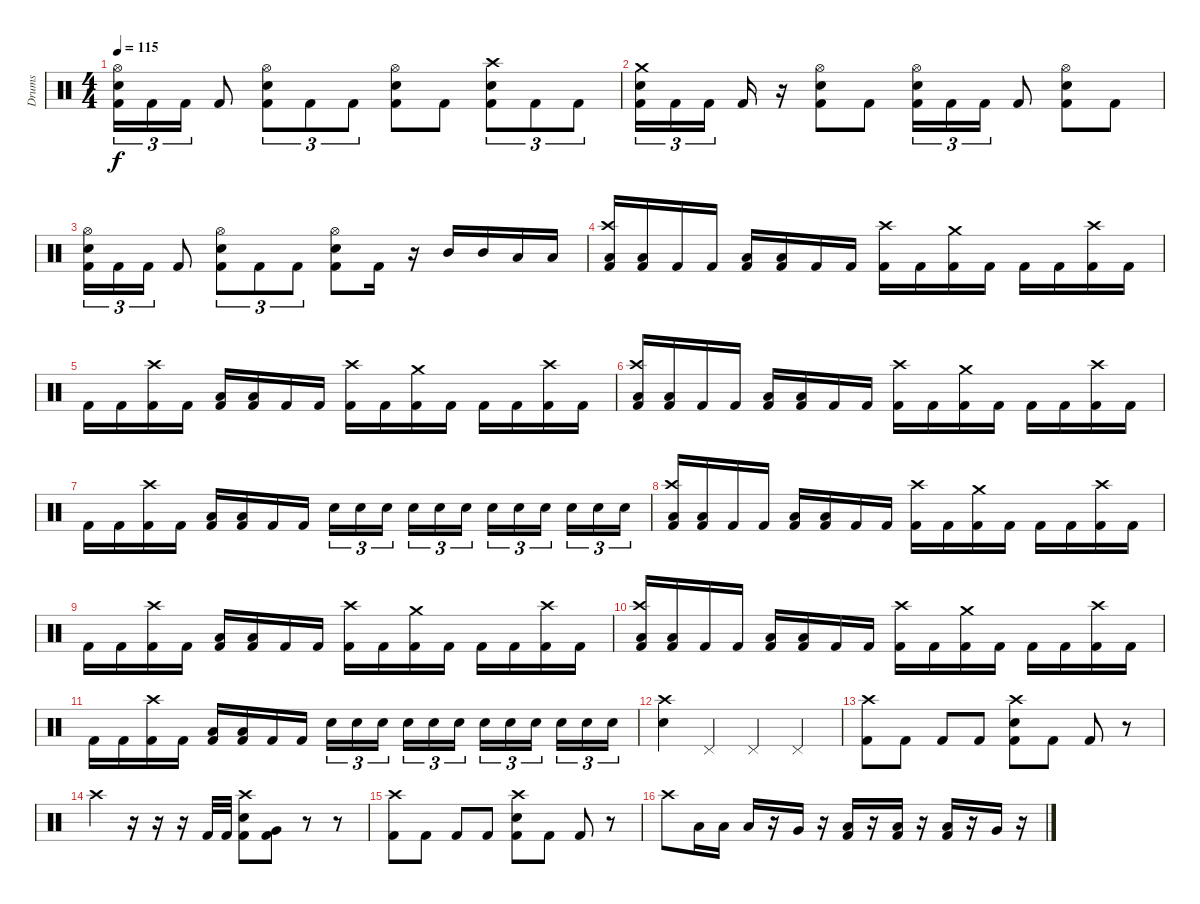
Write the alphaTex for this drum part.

\track ("Drums" "Drums") {instrument percussion}
\staff {score}
\articulation defaults
\ts (4 4)
\tempo 115
\clef neutral
\ks c
("Hi-Hat (open)" "Snare (hit) 2" "Kick (hit) 2").16{tu (3 2) dy f} "Kick (hit) 2".16{tu (3 2)} "Kick (hit) 2".16{tu (3 2)} "Kick (hit) 2".8 ("Hi-Hat (open)" "Snare (hit) 2" "Kick (hit) 2").8{tu (3 2)} "Kick (hit) 2".8{tu (3 2)} "Kick (hit) 2".8{tu (3 2)} ("Hi-Hat (open)" "Snare (hit) 2" "Kick (hit) 2").8 "Kick (hit) 2".8 ("Crash high (hit)" "Snare (hit) 2" "Kick (hit) 2").8{tu (3 2)} "Kick (hit) 2".8{tu (3 2)} "Kick (hit) 2".8{tu (3 2)} |
("Crash medium (hit)" "Snare (hit) 2" "Kick (hit) 2").16{tu (3 2)} "Kick (hit) 2".16{tu (3 2)} "Kick (hit) 2".16{tu (3 2) beam splitsecondary} "Kick (hit) 2".16 r.16 ("Hi-Hat (open)" "Snare (hit) 2" "Kick (hit) 2").8 "Kick (hit) 2".8 ("Hi-Hat (open)" "Snare (hit) 2" "Kick (hit) 2").16{tu (3 2)} "Kick (hit) 2".16{tu (3 2)} "Kick (hit) 2".16{tu (3 2)} "Kick (hit) 2".8 ("Hi-Hat (open)" "Snare (hit) 2" "Kick (hit) 2").8 "Kick (hit) 2".8 |
("Hi-Hat (open)" "Snare (hit) 2" "Kick (hit) 2").16{tu (3 2)} "Kick (hit) 2".16{tu (3 2)} "Kick (hit) 2".16{tu (3 2)} "Kick (hit) 2".8 ("Hi-Hat (open)" "Snare (hit) 2" "Kick (hit) 2").8{tu (3 2)} "Kick (hit) 2".8{tu (3 2)} "Kick (hit) 2".8{tu (3 2)} ("Hi-Hat (open)" "Snare (hit) 2" "Kick (hit) 2").8 "Kick (hit) 2".16 r.16 "Mid Tom (hit)".16 "Mid Tom (hit)".16 "Low Tom (hit)".16 "Low Tom (hit)".16 |
("Crash high (hit)" "Low Tom (hit)" "Kick (hit) 2").16 ("Low Tom (hit)" "Kick (hit) 2").16 "Kick (hit) 2".16 "Kick (hit) 2".16 ("Low Tom (hit)" "Kick (hit) 2").16 ("Low Tom (hit)" "Kick (hit) 2").16 "Kick (hit) 2".16 "Kick (hit) 2".16 ("Crash high (hit)" "Kick (hit) 2").16 "Kick (hit) 2".16 ("Crash medium (hit)" "Kick (hit) 2").16 "Kick (hit) 2".16 "Kick (hit) 2".16 "Kick (hit) 2".16 ("Crash high (hit)" "Kick (hit) 2").16 "Kick (hit) 2".16 |
"Kick (hit) 2".16 "Kick (hit) 2".16 ("Crash high (hit)" "Kick (hit) 2").16 "Kick (hit) 2".16 ("Low Tom (hit)" "Kick (hit) 2").16 ("Low Tom (hit)" "Kick (hit) 2").16 "Kick (hit) 2".16 "Kick (hit) 2".16 ("Crash high (hit)" "Kick (hit) 2").16 "Kick (hit) 2".16 ("Crash medium (hit)" "Kick (hit) 2").16 "Kick (hit) 2".16 "Kick (hit) 2".16 "Kick (hit) 2".16 ("Crash high (hit)" "Kick (hit) 2").16 "Kick (hit) 2".16 |
("Crash high (hit)" "Low Tom (hit)" "Kick (hit) 2").16 ("Low Tom (hit)" "Kick (hit) 2").16 "Kick (hit) 2".16 "Kick (hit) 2".16 ("Low Tom (hit)" "Kick (hit) 2").16 ("Low Tom (hit)" "Kick (hit) 2").16 "Kick (hit) 2".16 "Kick (hit) 2".16 ("Crash high (hit)" "Kick (hit) 2").16 "Kick (hit) 2".16 ("Crash medium (hit)" "Kick (hit) 2").16 "Kick (hit) 2".16 "Kick (hit) 2".16 "Kick (hit) 2".16 ("Crash high (hit)" "Kick (hit) 2").16 "Kick (hit) 2".16 |
"Kick (hit) 2".16 "Kick (hit) 2".16 ("Crash high (hit)" "Kick (hit) 2").16 "Kick (hit) 2".16 ("Low Tom (hit)" "Kick (hit) 2").16 ("Low Tom (hit)" "Kick (hit) 2").16 "Kick (hit) 2".16 "Kick (hit) 2".16 "Snare (hit) 2".16{tu (3 2)} "Snare (hit) 2".16{tu (3 2)} "Snare (hit) 2".16{tu (3 2) beam splitsecondary} "Snare (hit) 2".16{tu (3 2)} "Snare (hit) 2".16{tu (3 2)} "Snare (hit) 2".16{tu (3 2)} "Snare (hit) 2".16{tu (3 2)} "Snare (hit) 2".16{tu (3 2)} "Snare (hit) 2".16{tu (3 2) beam splitsecondary} "Snare (hit) 2".16{tu (3 2)} "Snare (hit) 2".16{tu (3 2)} "Snare (hit) 2".16{tu (3 2)} |
("Crash high (hit)" "Low Tom (hit)" "Kick (hit) 2").16 ("Low Tom (hit)" "Kick (hit) 2").16 "Kick (hit) 2".16 "Kick (hit) 2".16 ("Low Tom (hit)" "Kick (hit) 2").16 ("Low Tom (hit)" "Kick (hit) 2").16 "Kick (hit) 2".16 "Kick (hit) 2".16 ("Crash high (hit)" "Kick (hit) 2").16 "Kick (hit) 2".16 ("Crash medium (hit)" "Kick (hit) 2").16 "Kick (hit) 2".16 "Kick (hit) 2".16 "Kick (hit) 2".16 ("Crash high (hit)" "Kick (hit) 2").16 "Kick (hit) 2".16 |
"Kick (hit) 2".16 "Kick (hit) 2".16 ("Crash high (hit)" "Kick (hit) 2").16 "Kick (hit) 2".16 ("Low Tom (hit)" "Kick (hit) 2").16 ("Low Tom (hit)" "Kick (hit) 2").16 "Kick (hit) 2".16 "Kick (hit) 2".16 ("Crash high (hit)" "Kick (hit) 2").16 "Kick (hit) 2".16 ("Crash medium (hit)" "Kick (hit) 2").16 "Kick (hit) 2".16 "Kick (hit) 2".16 "Kick (hit) 2".16 ("Crash high (hit)" "Kick (hit) 2").16 "Kick (hit) 2".16 |
("Crash high (hit)" "Low Tom (hit)" "Kick (hit) 2").16 ("Low Tom (hit)" "Kick (hit) 2").16 "Kick (hit) 2".16 "Kick (hit) 2".16 ("Low Tom (hit)" "Kick (hit) 2").16 ("Low Tom (hit)" "Kick (hit) 2").16 "Kick (hit) 2".16 "Kick (hit) 2".16 ("Crash high (hit)" "Kick (hit) 2").16 "Kick (hit) 2".16 ("Crash medium (hit)" "Kick (hit) 2").16 "Kick (hit) 2".16 "Kick (hit) 2".16 "Kick (hit) 2".16 ("Crash high (hit)" "Kick (hit) 2").16 "Kick (hit) 2".16 |
"Kick (hit) 2".16 "Kick (hit) 2".16 ("Crash high (hit)" "Kick (hit) 2").16 "Kick (hit) 2".16 ("Low Tom (hit)" "Kick (hit) 2").16 ("Low Tom (hit)" "Kick (hit) 2").16 "Kick (hit) 2".16 "Kick (hit) 2".16 "Snare (hit) 2".16{tu (3 2)} "Snare (hit) 2".16{tu (3 2)} "Snare (hit) 2".16{tu (3 2) beam splitsecondary} "Snare (hit) 2".16{tu (3 2)} "Snare (hit) 2".16{tu (3 2)} "Snare (hit) 2".16{tu (3 2)} "Snare (hit) 2".16{tu (3 2)} "Snare (hit) 2".16{tu (3 2)} "Snare (hit) 2".16{tu (3 2) beam splitsecondary} "Snare (hit) 2".16{tu (3 2)} "Snare (hit) 2".16{tu (3 2)} "Snare (hit) 2".16{tu (3 2)} |
("Crash high (hit)" "Snare (hit) 2").4 "Pedal Hi-Hat (hit)".4 "Pedal Hi-Hat (hit)".4 "Pedal Hi-Hat (hit)".4 |
("Crash high (hit)" "Kick (hit) 2").8 "Kick (hit) 2".8 "Kick (hit) 2".8 "Kick (hit) 2".8 ("Crash high (hit)" "Snare (hit) 2" "Kick (hit) 2").8 "Kick (hit) 2".8 "Kick (hit) 2".8 r.8 |
"Crash high (hit)".4 r.16 r.16 r.16 "Kick (hit) 2".32 "Kick (hit) 2".32 ("Crash high (hit)" "Snare (hit) 2" "Kick (hit) 2").8 ("Very Low Tom (hit)" "Kick (hit) 2").8 r.8 r.8 |
("Crash high (hit)" "Kick (hit) 2").8 "Kick (hit) 2".8 "Kick (hit) 2".8 "Kick (hit) 2".8 ("Crash high (hit)" "Snare (hit) 2" "Kick (hit) 2").8 "Kick (hit) 2".8 "Kick (hit) 2".8 r.8 |
"Crash high (hit)".8 "Low Tom (hit)".16 "Low Tom (hit)".16 "Low Tom (hit)".16 r.16 "Very Low Tom (hit)".16 r.16 ("Low Tom (hit)" "Kick (hit) 2").16 r.16 ("Low Tom (hit)" "Kick (hit) 2").16 r.16 ("Low Tom (hit)" "Kick (hit) 2").16 r.16 "Very Low Tom (hit)".16 r.16
